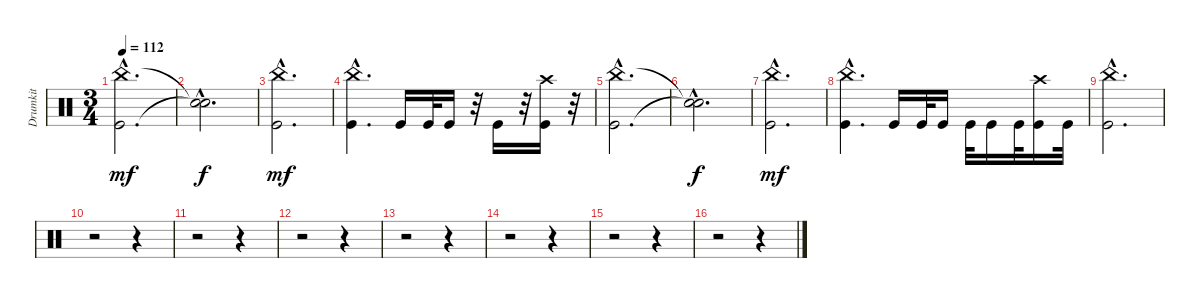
\track ("Drumkit" "Drumkit") {instrument percussion}
\staff {score}
\articulation defaults
\ts (3 4)
\tempo 112
\clef neutral
\ks c
("Kick (hit)"{hac} "China (hit)"{hac}).2{d dy mf} |
("Snare (hit)"{hac t} "Snare (hit)"{hac t}).2{d dy f} |
("Kick (hit)"{hac} "China (hit)"{hac}).2{d dy mf} |
("Kick (hit)"{hac} "China (hit)"{hac}).4{d} "Kick (hit)".16 "Kick (hit)".32 "Kick (hit)".16 r.32 "Kick (hit)".16 r.32 ("Kick (hit)" "Crash high (hit)").16 r.32 |
("Kick (hit)"{hac} "China (hit)"{hac}).2{d} |
("Snare (hit)"{hac t} "Snare (hit)"{hac t}).2{d dy f} |
("Kick (hit)"{hac} "China (hit)"{hac}).2{d dy mf} |
("Kick (hit)"{hac} "China (hit)"{hac}).4{d} "Kick (hit)".16 "Kick (hit)".32 "Kick (hit)".16 "Kick (hit)".32 "Kick (hit)".16 "Kick (hit)".32 ("Kick (hit)" "Crash high (hit)").16 "Kick (hit)".32 |
("Kick (hit)"{hac} "China (hit)"{hac}).2{d} |
r.2 r.4 |
r.2 r.4 |
r.2 r.4 |
r.2 r.4 |
r.2 r.4 |
r.2 r.4 |
r.2 r.4
